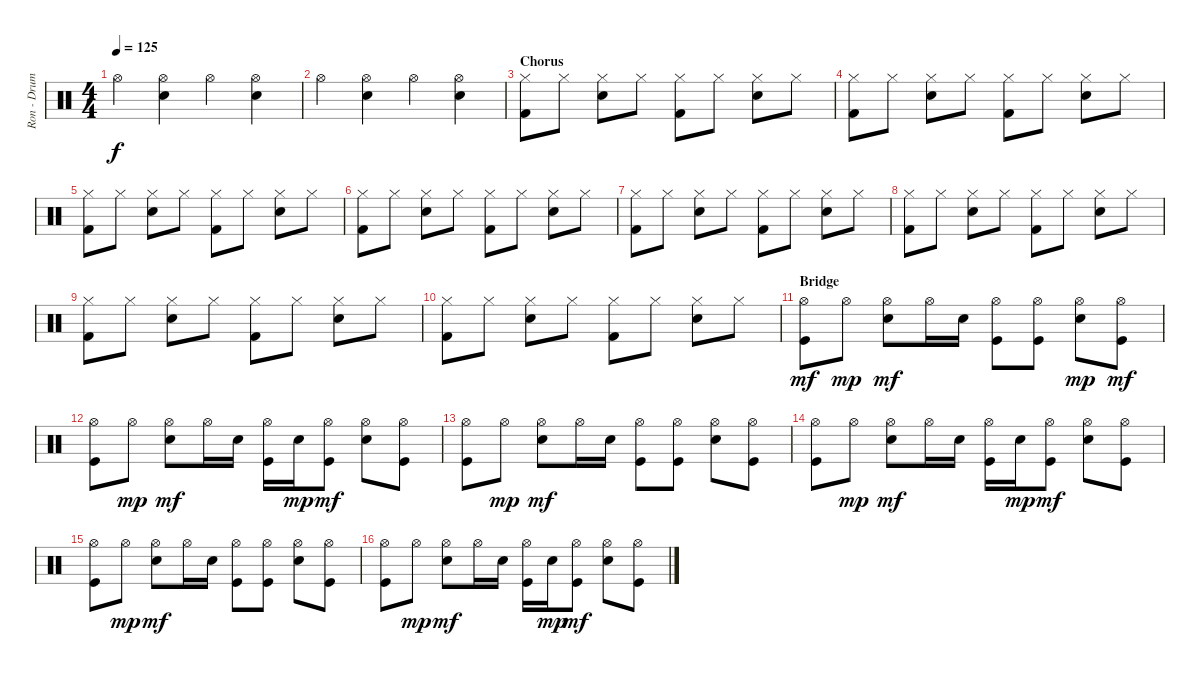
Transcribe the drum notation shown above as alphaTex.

\track ("Ron - Drums" "Ron - Drum") {instrument percussion}
\staff {score}
\articulation defaults
\ts (4 4)
\tempo 125
\clef neutral
\ks c "Hi-Hat (open)".4{dy f}
("Hi-Hat (open)" "Electric Snare (hit)").4 "Hi-Hat (open)".4 ("Hi-Hat (open)" "Electric Snare (hit)").4 |
"Hi-Hat (open)".4 ("Hi-Hat (open)" "Electric Snare (hit)").4 "Hi-Hat (open)".4 ("Hi-Hat (open)" "Electric Snare (hit)").4 |
\section ("" "Chorus")
("Hi-Hat (closed)" "Kick (hit) 2").8 "Hi-Hat (closed)".8 ("Hi-Hat (closed)" "Snare (hit) 2").8 "Hi-Hat (closed)".8 ("Hi-Hat (closed)" "Kick (hit) 2").8 "Hi-Hat (closed)".8 ("Hi-Hat (closed)" "Snare (hit) 2").8 "Hi-Hat (closed)".8 |
("Hi-Hat (closed)" "Kick (hit) 2").8 "Hi-Hat (closed)".8 ("Hi-Hat (closed)" "Snare (hit) 2").8 "Hi-Hat (closed)".8 ("Hi-Hat (closed)" "Kick (hit) 2").8 "Hi-Hat (closed)".8 ("Hi-Hat (closed)" "Snare (hit) 2").8 "Hi-Hat (closed)".8 |
("Hi-Hat (closed)" "Kick (hit) 2").8 "Hi-Hat (closed)".8 ("Hi-Hat (closed)" "Snare (hit) 2").8 "Hi-Hat (closed)".8 ("Hi-Hat (closed)" "Kick (hit) 2").8 "Hi-Hat (closed)".8 ("Hi-Hat (closed)" "Snare (hit) 2").8 "Hi-Hat (closed)".8 |
("Hi-Hat (closed)" "Kick (hit) 2").8 "Hi-Hat (closed)".8 ("Hi-Hat (closed)" "Snare (hit) 2").8 "Hi-Hat (closed)".8 ("Hi-Hat (closed)" "Kick (hit) 2").8 "Hi-Hat (closed)".8 ("Hi-Hat (closed)" "Snare (hit) 2").8 "Hi-Hat (closed)".8 |
("Hi-Hat (closed)" "Kick (hit) 2").8 "Hi-Hat (closed)".8 ("Hi-Hat (closed)" "Snare (hit) 2").8 "Hi-Hat (closed)".8 ("Hi-Hat (closed)" "Kick (hit) 2").8 "Hi-Hat (closed)".8 ("Hi-Hat (closed)" "Snare (hit) 2").8 "Hi-Hat (closed)".8 |
("Hi-Hat (closed)" "Kick (hit) 2").8 "Hi-Hat (closed)".8 ("Hi-Hat (closed)" "Snare (hit) 2").8 "Hi-Hat (closed)".8 ("Hi-Hat (closed)" "Kick (hit) 2").8 "Hi-Hat (closed)".8 ("Hi-Hat (closed)" "Snare (hit) 2").8 "Hi-Hat (closed)".8 |
("Hi-Hat (closed)" "Kick (hit) 2").8 "Hi-Hat (closed)".8 ("Hi-Hat (closed)" "Snare (hit) 2").8 "Hi-Hat (closed)".8 ("Hi-Hat (closed)" "Kick (hit) 2").8 "Hi-Hat (closed)".8 ("Hi-Hat (closed)" "Snare (hit) 2").8 "Hi-Hat (closed)".8 |
("Hi-Hat (closed)" "Kick (hit) 2").8 "Hi-Hat (closed)".8 ("Hi-Hat (closed)" "Snare (hit) 2").8 "Hi-Hat (closed)".8 ("Hi-Hat (closed)" "Kick (hit) 2").8 "Hi-Hat (closed)".8 ("Hi-Hat (closed)" "Snare (hit) 2").8 "Hi-Hat (closed)".8 |
\section ("" "Bridge")
("Hi-Hat (open)" "Kick (hit)").8{dy mf} "Hi-Hat (open)".8{dy mp} ("Hi-Hat (open)" "Electric Snare (hit)").8{dy mf} "Hi-Hat (open)".16 "Electric Snare (hit)".16 ("Hi-Hat (open)" "Kick (hit)").8 ("Hi-Hat (open)" "Kick (hit)").8 ("Hi-Hat (open)" "Electric Snare (hit)").8{dy mp} ("Hi-Hat (open)" "Kick (hit)").8{dy mf} |
("Hi-Hat (open)" "Kick (hit)").8 "Hi-Hat (open)".8{dy mp} ("Hi-Hat (open)" "Electric Snare (hit)").8{dy mf} "Hi-Hat (open)".16 "Electric Snare (hit)".16 ("Hi-Hat (open)" "Kick (hit)").16 "Electric Snare (hit)".16{dy mp} ("Hi-Hat (open)" "Kick (hit)").8{dy mf} ("Hi-Hat (open)" "Electric Snare (hit)").8 ("Hi-Hat (open)" "Kick (hit)").8 |
("Hi-Hat (open)" "Kick (hit)").8 "Hi-Hat (open)".8{dy mp} ("Hi-Hat (open)" "Electric Snare (hit)").8{dy mf} "Hi-Hat (open)".16 "Electric Snare (hit)".16 ("Hi-Hat (open)" "Kick (hit)").8 ("Hi-Hat (open)" "Kick (hit)").8 ("Hi-Hat (open)" "Electric Snare (hit)").8 ("Hi-Hat (open)" "Kick (hit)").8 |
("Hi-Hat (open)" "Kick (hit)").8 "Hi-Hat (open)".8{dy mp} ("Hi-Hat (open)" "Electric Snare (hit)").8{dy mf} "Hi-Hat (open)".16 "Electric Snare (hit)".16 ("Hi-Hat (open)" "Kick (hit)").16 "Electric Snare (hit)".16{dy mp} ("Hi-Hat (open)" "Kick (hit)").8{dy mf} ("Hi-Hat (open)" "Electric Snare (hit)").8 ("Hi-Hat (open)" "Kick (hit)").8 |
("Hi-Hat (open)" "Kick (hit)").8 "Hi-Hat (open)".8{dy mp} ("Hi-Hat (open)" "Electric Snare (hit)").8{dy mf} "Hi-Hat (open)".16 "Electric Snare (hit)".16 ("Hi-Hat (open)" "Kick (hit)").8 ("Hi-Hat (open)" "Kick (hit)").8 ("Hi-Hat (open)" "Electric Snare (hit)").8 ("Hi-Hat (open)" "Kick (hit)").8 |
("Hi-Hat (open)" "Kick (hit)").8 "Hi-Hat (open)".8{dy mp} ("Hi-Hat (open)" "Electric Snare (hit)").8{dy mf} "Hi-Hat (open)".16 "Electric Snare (hit)".16 ("Hi-Hat (open)" "Kick (hit)").16 "Electric Snare (hit)".16{dy mp} ("Hi-Hat (open)" "Kick (hit)").8{dy mf} ("Hi-Hat (open)" "Electric Snare (hit)").8 ("Hi-Hat (open)" "Kick (hit)").8
